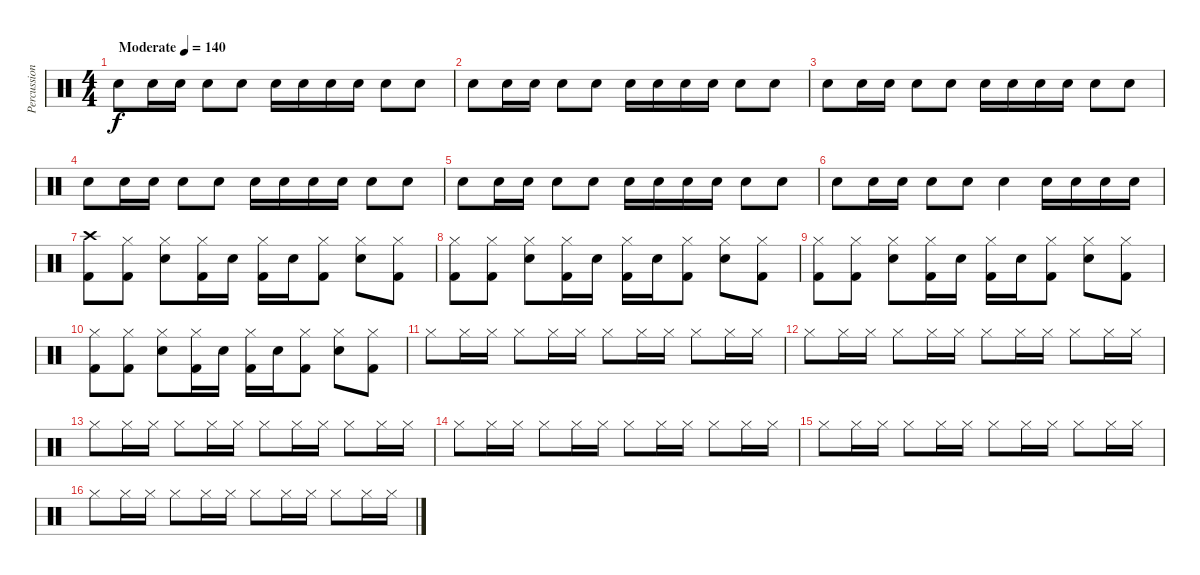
\track ("Percussion" "Percussion") {instrument percussion}
\staff {score}
\articulation defaults
\ts (4 4)
\tempo (140 "Moderate")
\clef neutral
\ks c "Snare (hit) 2".8{dy f} "Snare (hit) 2".16 "Snare (hit) 2".16 "Snare (hit) 2".8 "Snare (hit) 2".8 "Snare (hit) 2".16 "Snare (hit) 2".16 "Snare (hit) 2".16 "Snare (hit) 2".16 "Snare (hit) 2".8 "Snare (hit) 2".8
|
"Snare (hit) 2".8 "Snare (hit) 2".16 "Snare (hit) 2".16 "Snare (hit) 2".8 "Snare (hit) 2".8 "Snare (hit) 2".16 "Snare (hit) 2".16 "Snare (hit) 2".16 "Snare (hit) 2".16 "Snare (hit) 2".8 "Snare (hit) 2".8 |
"Snare (hit) 2".8 "Snare (hit) 2".16 "Snare (hit) 2".16 "Snare (hit) 2".8 "Snare (hit) 2".8 "Snare (hit) 2".16 "Snare (hit) 2".16 "Snare (hit) 2".16 "Snare (hit) 2".16 "Snare (hit) 2".8 "Snare (hit) 2".8 |
"Snare (hit) 2".8 "Snare (hit) 2".16 "Snare (hit) 2".16 "Snare (hit) 2".8 "Snare (hit) 2".8 "Snare (hit) 2".16 "Snare (hit) 2".16 "Snare (hit) 2".16 "Snare (hit) 2".16 "Snare (hit) 2".8 "Snare (hit) 2".8 |
"Snare (hit) 2".8 "Snare (hit) 2".16 "Snare (hit) 2".16 "Snare (hit) 2".8 "Snare (hit) 2".8 "Snare (hit) 2".16 "Snare (hit) 2".16 "Snare (hit) 2".16 "Snare (hit) 2".16 "Snare (hit) 2".8 "Snare (hit) 2".8 |
"Snare (hit) 2".8 "Snare (hit) 2".16 "Snare (hit) 2".16 "Snare (hit) 2".8 "Snare (hit) 2".8 "Snare (hit) 2".4 "Snare (hit) 2".16 "Snare (hit) 2".16 "Snare (hit) 2".16 "Snare (hit) 2".16 |
("Crash high (hit)" "Kick (hit) 2").8 ("Hi-Hat (closed)" "Kick (hit) 2").8 ("Hi-Hat (closed)" "Snare (hit) 2").8 ("Hi-Hat (closed)" "Kick (hit) 2").16 "Snare (hit) 2".16 ("Hi-Hat (closed)" "Kick (hit) 2").16 "Snare (hit) 2".16 ("Hi-Hat (closed)" "Kick (hit) 2").8 ("Hi-Hat (closed)" "Snare (hit) 2").8 ("Hi-Hat (closed)" "Kick (hit) 2").8 |
("Hi-Hat (closed)" "Kick (hit) 2").8 ("Hi-Hat (closed)" "Kick (hit) 2").8 ("Hi-Hat (closed)" "Snare (hit) 2").8 ("Hi-Hat (closed)" "Kick (hit) 2").16 "Snare (hit) 2".16 ("Hi-Hat (closed)" "Kick (hit) 2").16 "Snare (hit) 2".16 ("Hi-Hat (closed)" "Kick (hit) 2").8 ("Hi-Hat (closed)" "Snare (hit) 2").8 ("Hi-Hat (closed)" "Kick (hit) 2").8 |
("Hi-Hat (closed)" "Kick (hit) 2").8 ("Hi-Hat (closed)" "Kick (hit) 2").8 ("Hi-Hat (closed)" "Snare (hit) 2").8 ("Hi-Hat (closed)" "Kick (hit) 2").16 "Snare (hit) 2".16 ("Hi-Hat (closed)" "Kick (hit) 2").16 "Snare (hit) 2".16 ("Hi-Hat (closed)" "Kick (hit) 2").8 ("Hi-Hat (closed)" "Snare (hit) 2").8 ("Hi-Hat (closed)" "Kick (hit) 2").8 |
("Hi-Hat (closed)" "Kick (hit) 2").8 ("Hi-Hat (closed)" "Kick (hit) 2").8 ("Hi-Hat (closed)" "Snare (hit) 2").8 ("Hi-Hat (closed)" "Kick (hit) 2").16 "Snare (hit) 2".16 ("Hi-Hat (closed)" "Kick (hit) 2").16 "Snare (hit) 2".16 ("Hi-Hat (closed)" "Kick (hit) 2").8 ("Hi-Hat (closed)" "Snare (hit) 2").8 ("Hi-Hat (closed)" "Kick (hit) 2").8 |
"Hi-Hat (closed)".8 "Hi-Hat (closed)".16 "Hi-Hat (closed)".16 "Hi-Hat (closed)".8 "Hi-Hat (closed)".16 "Hi-Hat (closed)".16 "Hi-Hat (closed)".8 "Hi-Hat (closed)".16 "Hi-Hat (closed)".16 "Hi-Hat (closed)".8 "Hi-Hat (closed)".16 "Hi-Hat (closed)".16 |
"Hi-Hat (closed)".8 "Hi-Hat (closed)".16 "Hi-Hat (closed)".16 "Hi-Hat (closed)".8 "Hi-Hat (closed)".16 "Hi-Hat (closed)".16 "Hi-Hat (closed)".8 "Hi-Hat (closed)".16 "Hi-Hat (closed)".16 "Hi-Hat (closed)".8 "Hi-Hat (closed)".16 "Hi-Hat (closed)".16 |
"Hi-Hat (closed)".8 "Hi-Hat (closed)".16 "Hi-Hat (closed)".16 "Hi-Hat (closed)".8 "Hi-Hat (closed)".16 "Hi-Hat (closed)".16 "Hi-Hat (closed)".8 "Hi-Hat (closed)".16 "Hi-Hat (closed)".16 "Hi-Hat (closed)".8 "Hi-Hat (closed)".16 "Hi-Hat (closed)".16 |
"Hi-Hat (closed)".8 "Hi-Hat (closed)".16 "Hi-Hat (closed)".16 "Hi-Hat (closed)".8 "Hi-Hat (closed)".16 "Hi-Hat (closed)".16 "Hi-Hat (closed)".8 "Hi-Hat (closed)".16 "Hi-Hat (closed)".16 "Hi-Hat (closed)".8 "Hi-Hat (closed)".16 "Hi-Hat (closed)".16 |
"Hi-Hat (closed)".8 "Hi-Hat (closed)".16 "Hi-Hat (closed)".16 "Hi-Hat (closed)".8 "Hi-Hat (closed)".16 "Hi-Hat (closed)".16 "Hi-Hat (closed)".8 "Hi-Hat (closed)".16 "Hi-Hat (closed)".16 "Hi-Hat (closed)".8 "Hi-Hat (closed)".16 "Hi-Hat (closed)".16 |
"Hi-Hat (closed)".8 "Hi-Hat (closed)".16 "Hi-Hat (closed)".16 "Hi-Hat (closed)".8 "Hi-Hat (closed)".16 "Hi-Hat (closed)".16 "Hi-Hat (closed)".8 "Hi-Hat (closed)".16 "Hi-Hat (closed)".16 "Hi-Hat (closed)".8 "Hi-Hat (closed)".16 "Hi-Hat (closed)".16
